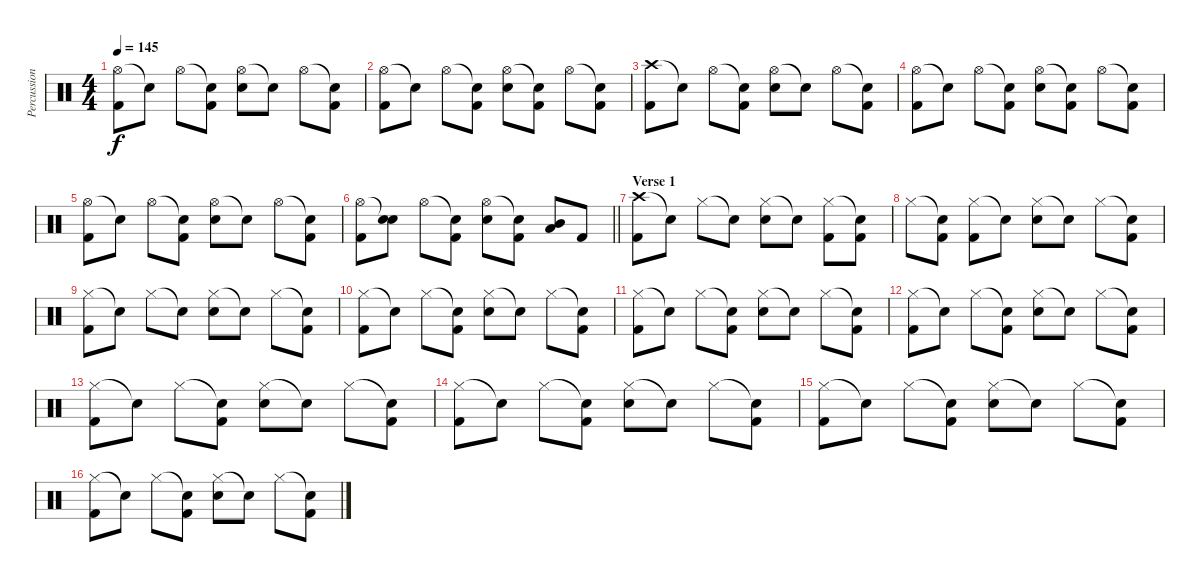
\track ("Percussion" "Percussion") {instrument percussion}
\staff {score}
\articulation defaults
\ts (4 4)
\tempo 145
\clef neutral
\ks c
("Hi-Hat (open)" "Kick (hit) 2").8{dy f} "Snare (hit)"{t}.8 "Hi-Hat (open)".8 ("Snare (hit)"{t} "Kick (hit) 2").8 ("Hi-Hat (open)" "Electric Snare (hit)").8 "Snare (hit)"{t}.8 "Hi-Hat (open)".8 ("Snare (hit)"{t} "Kick (hit) 2").8 |
("Hi-Hat (open)" "Kick (hit) 2").8 "Snare (hit)"{t}.8 "Hi-Hat (open)".8 ("Snare (hit)"{t} "Kick (hit) 2").8 ("Hi-Hat (open)" "Electric Snare (hit)").8 ("Snare (hit)"{t} "Kick (hit) 2").8 "Hi-Hat (open)".8 ("Snare (hit)"{t} "Kick (hit) 2").8 |
("Crash high (hit)" "Kick (hit) 2").8 "Snare (hit)"{t}.8 "Hi-Hat (open)".8 ("Snare (hit)"{t} "Kick (hit) 2").8 ("Hi-Hat (open)" "Electric Snare (hit)").8 "Snare (hit)"{t}.8 "Hi-Hat (open)".8 ("Snare (hit)"{t} "Kick (hit) 2").8 |
("Hi-Hat (open)" "Kick (hit) 2").8 "Snare (hit)"{t}.8 "Hi-Hat (open)".8 ("Snare (hit)"{t} "Kick (hit) 2").8 ("Hi-Hat (open)" "Electric Snare (hit)").8 ("Snare (hit)"{t} "Kick (hit) 2").8 "Hi-Hat (open)".8 ("Snare (hit)"{t} "Kick (hit) 2").8 |
("Hi-Hat (open)" "Kick (hit) 2").8 "Snare (hit)"{t}.8 "Hi-Hat (open)".8 ("Snare (hit)"{t} "Kick (hit) 2").8 ("Hi-Hat (open)" "Electric Snare (hit)").8 "Snare (hit)"{t}.8 "Hi-Hat (open)".8 ("Snare (hit)"{t} "Kick (hit) 2").8 |
\barLineRight lightlight
("Hi-Hat (open)" "Kick (hit) 2").8 ("Snare (hit)"{t} "Electric Snare (hit)").8 "Hi-Hat (open)".8 ("Snare (hit)"{t} "Kick (hit) 2").8 ("Hi-Hat (open)" "Electric Snare (hit)").8 ("Snare (hit)"{t} "Kick (hit) 2").8 ("Mid Tom (hit)" "Low Tom (hit)").8 "Kick (hit) 2".8 |
\section ("" "Verse 1")
("Crash high (hit)" "Kick (hit) 2").8 "Snare (hit)"{t}.8 "Hi-Hat (closed)".8 "Snare (hit)"{t}.8 ("Hi-Hat (closed)" "Electric Snare (hit)").8 "Snare (hit)"{t}.8 ("Hi-Hat (closed)" "Kick (hit) 2").8 ("Snare (hit)"{t} "Kick (hit) 2").8 |
"Hi-Hat (closed)".8 ("Snare (hit)"{t} "Kick (hit) 2").8 ("Hi-Hat (closed)" "Kick (hit) 2").8 "Snare (hit)"{t}.8 ("Hi-Hat (closed)" "Electric Snare (hit)").8 "Snare (hit)"{t}.8 "Hi-Hat (closed)".8 ("Snare (hit)"{t} "Kick (hit) 2").8 |
("Hi-Hat (closed)" "Kick (hit) 2").8 "Snare (hit)"{t}.8 "Hi-Hat (closed)".8 "Snare (hit)"{t}.8 ("Hi-Hat (closed)" "Electric Snare (hit)").8 "Snare (hit)"{t}.8 "Hi-Hat (closed)".8 ("Snare (hit)"{t} "Kick (hit) 2").8 |
("Hi-Hat (closed)" "Kick (hit) 2").8 "Snare (hit)"{t}.8 "Hi-Hat (closed)".8 ("Snare (hit)"{t} "Kick (hit) 2").8 ("Hi-Hat (closed)" "Electric Snare (hit)").8 "Snare (hit)"{t}.8 "Hi-Hat (closed)".8 ("Snare (hit)"{t} "Kick (hit) 2").8 |
("Hi-Hat (closed)" "Kick (hit) 2").8 "Snare (hit)"{t}.8 "Hi-Hat (closed)".8 ("Snare (hit)"{t} "Kick (hit) 2").8 ("Hi-Hat (closed)" "Electric Snare (hit)").8 "Snare (hit)"{t}.8 "Hi-Hat (closed)".8 ("Snare (hit)"{t} "Kick (hit) 2").8 |
("Hi-Hat (closed)" "Kick (hit) 2").8 "Snare (hit)"{t}.8 "Hi-Hat (closed)".8 ("Snare (hit)"{t} "Kick (hit) 2").8 ("Hi-Hat (closed)" "Electric Snare (hit)").8 "Snare (hit)"{t}.8 "Hi-Hat (closed)".8 ("Snare (hit)"{t} "Kick (hit) 2").8 |
("Hi-Hat (closed)" "Kick (hit) 2").8 "Snare (hit)"{t}.8 "Hi-Hat (closed)".8 ("Snare (hit)"{t} "Kick (hit) 2").8 ("Hi-Hat (closed)" "Electric Snare (hit)").8 "Snare (hit)"{t}.8 "Hi-Hat (closed)".8 ("Snare (hit)"{t} "Kick (hit) 2").8 |
("Hi-Hat (closed)" "Kick (hit) 2").8 "Snare (hit)"{t}.8 "Hi-Hat (closed)".8 ("Snare (hit)"{t} "Kick (hit) 2").8 ("Hi-Hat (closed)" "Electric Snare (hit)").8 "Snare (hit)"{t}.8 "Hi-Hat (closed)".8 ("Snare (hit)"{t} "Kick (hit) 2").8 |
("Hi-Hat (closed)" "Kick (hit) 2").8 "Snare (hit)"{t}.8 "Hi-Hat (closed)".8 ("Snare (hit)"{t} "Kick (hit) 2").8 ("Hi-Hat (closed)" "Electric Snare (hit)").8 "Snare (hit)"{t}.8 "Hi-Hat (closed)".8 ("Snare (hit)"{t} "Kick (hit) 2").8 |
("Hi-Hat (closed)" "Kick (hit) 2").8 "Snare (hit)"{t}.8 "Hi-Hat (closed)".8 ("Snare (hit)"{t} "Kick (hit) 2").8 ("Hi-Hat (closed)" "Electric Snare (hit)").8 "Snare (hit)"{t}.8 "Hi-Hat (closed)".8 ("Snare (hit)"{t} "Kick (hit) 2").8
